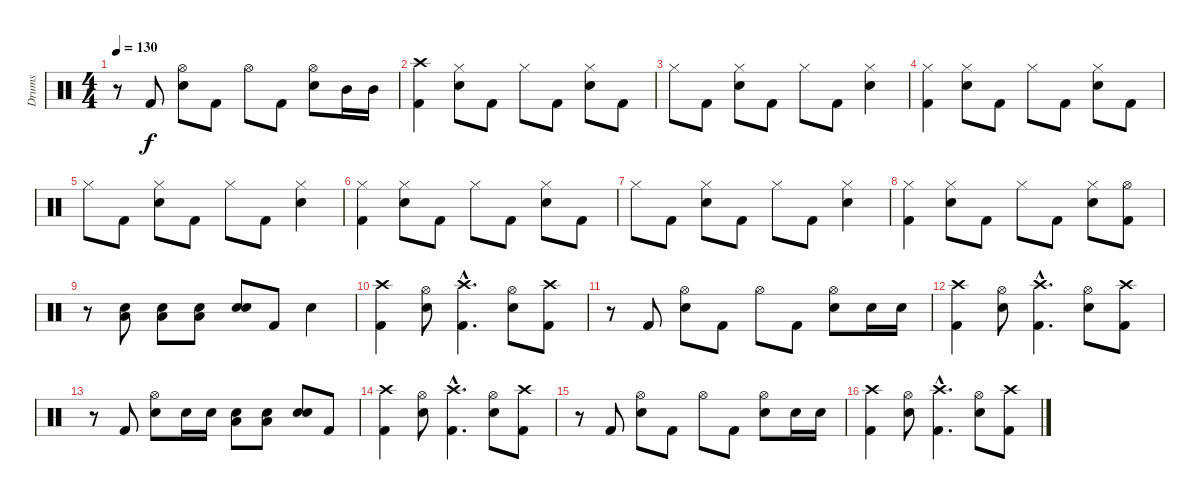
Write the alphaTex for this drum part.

\track ("Drums" "Drums") {instrument percussion}
\staff {score}
\articulation defaults
\ts (4 4)
\tempo 130
\clef neutral
\ks c
r.8{dy f} "Kick (hit) 2".8 ("Hi-Hat (open)" "Snare (hit) 2").8 "Kick (hit) 2".8 "Hi-Hat (open)".8 "Kick (hit) 2".8 ("Hi-Hat (open)" "Snare (hit) 2").8 "Mid Tom (hit)".16 "Mid Tom (hit)".16 |
("Crash high (hit)" "Kick (hit) 2").4 ("Hi-Hat (closed)" "Snare (hit) 2").8 "Kick (hit) 2".8 "Hi-Hat (closed)".8 "Kick (hit) 2".8 ("Hi-Hat (closed)" "Snare (hit) 2").8 "Kick (hit) 2".8 |
"Hi-Hat (closed)".8 "Kick (hit) 2".8 ("Hi-Hat (closed)" "Snare (hit) 2").8 "Kick (hit) 2".8 "Hi-Hat (closed)".8 "Kick (hit) 2".8 ("Hi-Hat (closed)" "Snare (hit) 2").4 |
("Hi-Hat (closed)" "Kick (hit) 2").4 ("Hi-Hat (closed)" "Snare (hit) 2").8 "Kick (hit) 2".8 "Hi-Hat (closed)".8 "Kick (hit) 2".8 ("Hi-Hat (closed)" "Snare (hit) 2").8 "Kick (hit) 2".8 |
"Hi-Hat (closed)".8 "Kick (hit) 2".8 ("Hi-Hat (closed)" "Snare (hit) 2").8 "Kick (hit) 2".8 "Hi-Hat (closed)".8 "Kick (hit) 2".8 ("Hi-Hat (closed)" "Snare (hit) 2").4 |
("Hi-Hat (closed)" "Kick (hit) 2").4 ("Hi-Hat (closed)" "Snare (hit) 2").8 "Kick (hit) 2".8 "Hi-Hat (closed)".8 "Kick (hit) 2".8 ("Hi-Hat (closed)" "Snare (hit) 2").8 "Kick (hit) 2".8 |
"Hi-Hat (closed)".8 "Kick (hit) 2".8 ("Hi-Hat (closed)" "Snare (hit) 2").8 "Kick (hit) 2".8 "Hi-Hat (closed)".8 "Kick (hit) 2".8 ("Hi-Hat (closed)" "Snare (hit) 2").4 |
("Hi-Hat (closed)" "Kick (hit) 2").4 ("Hi-Hat (closed)" "Snare (hit) 2").8 "Kick (hit) 2".8 "Hi-Hat (closed)".8 "Kick (hit) 2".8 ("Hi-Hat (closed)" "Snare (hit) 2").8 ("Hi-Hat (open)" "Kick (hit) 2").8 |
r.8 ("Low Floor Tom (hit)" "Snare (hit) 2").8 ("Low Floor Tom (hit)" "Snare (hit) 2").8 ("Low Floor Tom (hit)" "Snare (hit) 2").8 ("Snare (hit) 2" "Snare (hit) 2").8{bd 240} "Kick (hit) 2".8 "Snare (hit) 2".4 |
("Crash high (hit)" "Kick (hit) 2").4 ("Hi-Hat (open)" "Snare (hit) 2").8 ("Crash high (hit)"{hac} "Kick (hit) 2"{hac}).4{d} ("Hi-Hat (open)" "Snare (hit) 2").8 ("Crash high (hit)" "Kick (hit) 2").8 |
r.8 "Kick (hit) 2".8 ("Hi-Hat (open)" "Snare (hit) 2").8 "Kick (hit) 2".8 "Hi-Hat (open)".8 "Kick (hit) 2".8 ("Hi-Hat (open)" "Snare (hit) 2").8 "Snare (hit) 2".16 "Snare (hit) 2".16 |
("Crash high (hit)" "Kick (hit) 2").4 ("Hi-Hat (open)" "Snare (hit) 2").8 ("Crash high (hit)"{hac} "Kick (hit) 2"{hac}).4{d} ("Hi-Hat (open)" "Snare (hit) 2").8 ("Crash high (hit)" "Kick (hit) 2").8 |
r.8 "Kick (hit) 2".8 ("Hi-Hat (open)" "Snare (hit) 2").8 "Snare (hit) 2".16 "Snare (hit) 2".16 ("Low Floor Tom (hit)" "Snare (hit) 2").8 ("Low Floor Tom (hit)" "Snare (hit) 2").8 ("Snare (hit) 2" "Snare (hit) 2").8{bd 240} "Kick (hit) 2".8 |
("Crash high (hit)" "Kick (hit) 2").4 ("Hi-Hat (open)" "Snare (hit) 2").8 ("Crash high (hit)"{hac} "Kick (hit) 2"{hac}).4{d} ("Hi-Hat (open)" "Snare (hit) 2").8 ("Crash high (hit)" "Kick (hit) 2").8 |
r.8 "Kick (hit) 2".8 ("Hi-Hat (open)" "Snare (hit) 2").8 "Kick (hit) 2".8 "Hi-Hat (open)".8 "Kick (hit) 2".8 ("Hi-Hat (open)" "Snare (hit) 2").8 "Snare (hit) 2".16 "Snare (hit) 2".16 |
("Crash high (hit)" "Kick (hit) 2").4 ("Hi-Hat (open)" "Snare (hit) 2").8 ("Crash high (hit)"{hac} "Kick (hit) 2"{hac}).4{d} ("Hi-Hat (open)" "Snare (hit) 2").8 ("Crash high (hit)" "Kick (hit) 2").8
